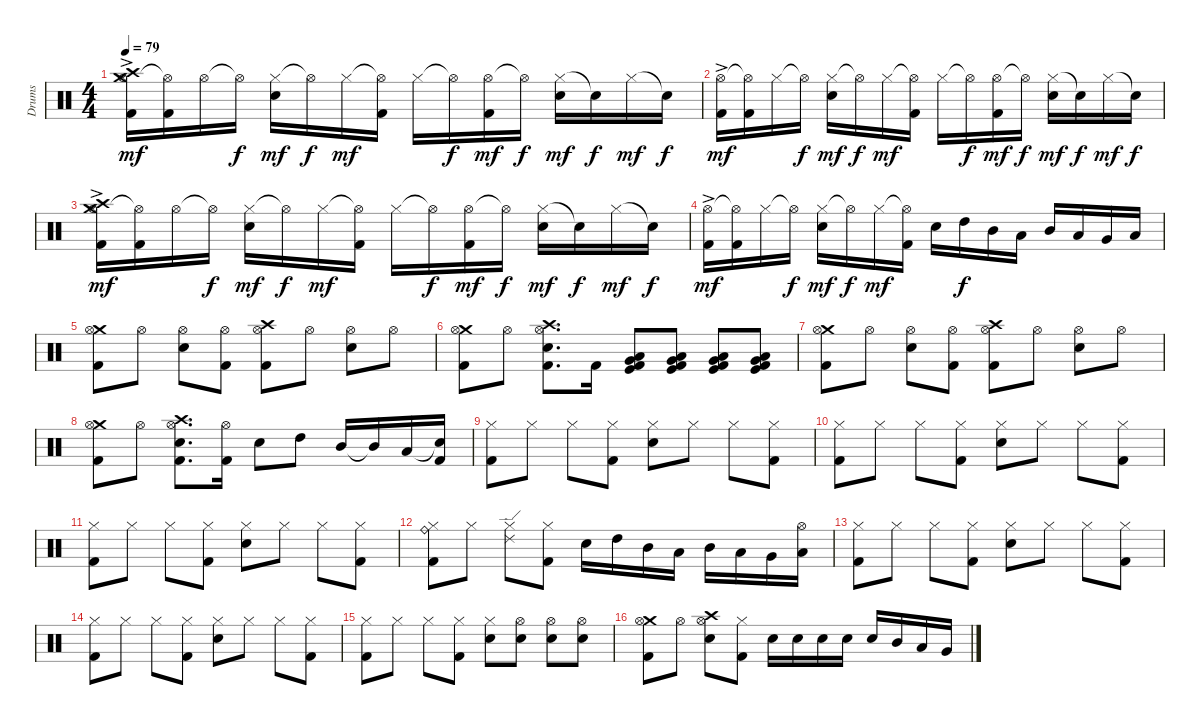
\track ("Drums" "Drums") {instrument percussion}
\staff {score}
\articulation defaults
\ts (4 4)
\tempo 79
\clef neutral
\ks c
("Crash medium (hit)" "Crash high (hit)" "Hi-Hat (open)"{ac} "Kick (hit) 2").16{dy mf} ("Hi-Hat (open)"{t} "Kick (hit) 2").16 "Hi-Hat (open)".16 "Hi-Hat (open)"{t}.16{dy f} ("Hi-Hat (closed)" "Electric Snare (hit)").16{dy mf} "Hi-Hat (open)"{t}.16{dy f} "Hi-Hat (closed)".16{dy mf} ("Hi-Hat (open)"{t} "Kick (hit) 2").16 "Hi-Hat (closed)".16 "Hi-Hat (open)"{t}.16{dy f} ("Hi-Hat (open)" "Kick (hit) 2").16{dy mf} "Hi-Hat (open)"{t}.16{dy f} ("Hi-Hat (closed)" "Electric Snare (hit)").16{dy mf} "Snare (hit)"{t}.16{dy f} "Hi-Hat (closed)".16{dy mf} "Snare (hit)"{t}.16{dy f} |
("Hi-Hat (open)"{ac} "Kick (hit) 2").16{dy mf} ("Hi-Hat (open)"{t} "Kick (hit) 2").16 "Hi-Hat (closed)".16 "Hi-Hat (open)"{t}.16{dy f} ("Hi-Hat (closed)" "Electric Snare (hit)").16{dy mf} "Hi-Hat (open)"{t}.16{dy f} "Hi-Hat (closed)".16{dy mf} ("Hi-Hat (open)"{t} "Kick (hit) 2").16 "Hi-Hat (closed)".16 "Hi-Hat (open)"{t}.16{dy f} ("Hi-Hat (open)" "Kick (hit) 2").16{dy mf} "Hi-Hat (open)"{t}.16{dy f} ("Hi-Hat (closed)" "Electric Snare (hit)").16{dy mf} "Snare (hit)"{t}.16{dy f} "Hi-Hat (closed)".16{dy mf} "Snare (hit)"{t}.16{dy f} |
("Crash medium (hit)" "Crash high (hit)" "Hi-Hat (open)"{ac} "Kick (hit) 2").16{dy mf} ("Hi-Hat (open)"{t} "Kick (hit) 2").16 "Hi-Hat (open)".16 "Hi-Hat (open)"{t}.16{dy f} ("Hi-Hat (closed)" "Electric Snare (hit)").16{dy mf} "Hi-Hat (open)"{t}.16{dy f} "Hi-Hat (closed)".16{dy mf} ("Hi-Hat (open)"{t} "Kick (hit) 2").16 "Hi-Hat (closed)".16 "Hi-Hat (open)"{t}.16{dy f} ("Hi-Hat (open)" "Kick (hit) 2").16{dy mf} "Hi-Hat (open)"{t}.16{dy f} ("Hi-Hat (closed)" "Electric Snare (hit)").16{dy mf} "Snare (hit)"{t}.16{dy f} "Hi-Hat (closed)".16{dy mf} "Snare (hit)"{t}.16{dy f} |
("Hi-Hat (open)"{ac} "Kick (hit) 2").16{dy mf} ("Hi-Hat (open)"{t} "Kick (hit) 2").16 "Hi-Hat (closed)".16 "Hi-Hat (open)"{t}.16{dy f} ("Hi-Hat (closed)" "Electric Snare (hit)").16{dy mf} "Hi-Hat (open)"{t}.16{dy f} "Hi-Hat (closed)".16{dy mf} ("Hi-Hat (open)"{t} "Kick (hit) 2").16 "Electric Snare (hit)".16 "High Tom (hit)".16{dy f} "Mid Tom (hit)".16 "Low Tom (hit)".16 "Mid Tom (hit)".16 "Low Tom (hit)".16 "Very Low Tom (hit)".16 "Low Floor Tom (hit)".16 |
("Crash medium (hit)" "Hi-Hat (open)" "Kick (hit) 2").8 "Hi-Hat (open)".8 ("Hi-Hat (open)" "Electric Snare (hit)").8 ("Hi-Hat (open)" "Kick (hit) 2").8 ("Crash high (hit)" "Hi-Hat (open)" "Kick (hit) 2").8 "Hi-Hat (open)".8 ("Hi-Hat (open)" "Electric Snare (hit)").8 "Hi-Hat (open)".8 |
("Crash medium (hit)" "Hi-Hat (open)" "Kick (hit) 2").8 "Hi-Hat (open)".8 ("Crash high (hit)" "Hi-Hat (open)" "Electric Snare (hit)" "Kick (hit) 2").8{d} "Kick (hit) 2".16 ("Very Low Tom (hit)" "Kick (hit)" "Kick (hit) 2" "Low Floor Tom (hit)").8 ("Very Low Tom (hit)" "Kick (hit)" "Kick (hit) 2" "Low Floor Tom (hit)").8 ("Very Low Tom (hit)" "Kick (hit)" "Kick (hit) 2" "Low Floor Tom (hit)").8 ("Very Low Tom (hit)" "Kick (hit)" "Kick (hit) 2" "Low Floor Tom (hit)").8 |
("Crash medium (hit)" "Hi-Hat (open)" "Kick (hit) 2").8 "Hi-Hat (open)".8 ("Hi-Hat (open)" "Electric Snare (hit)").8 ("Hi-Hat (open)" "Kick (hit) 2").8 ("Crash high (hit)" "Hi-Hat (open)" "Kick (hit) 2").8 "Hi-Hat (open)".8 ("Hi-Hat (open)" "Electric Snare (hit)").8 "Hi-Hat (open)".8 |
("Crash medium (hit)" "Hi-Hat (open)" "Kick (hit) 2").8 "Hi-Hat (open)".8 ("Crash high (hit)" "Hi-Hat (open)" "Electric Snare (hit)" "Kick (hit) 2").8{d} ("Hi-Hat (open)" "Kick (hit) 2").16 "Electric Snare (hit)".8 "High Tom (hit)".8 "Mid Tom (hit)".16 "Mid Tom (hit)"{t}.16 "Low Tom (hit)".16 ("Snare (hit)"{t} "Kick (hit) 2").16 |
("Hi-Hat (closed)" "Kick (hit) 2").8 "Hi-Hat (closed)".8 "Hi-Hat (closed)".8 ("Hi-Hat (closed)" "Kick (hit) 2").8 ("Hi-Hat (closed)" "Electric Snare (hit)").8 "Hi-Hat (closed)".8 "Hi-Hat (closed)".8 ("Hi-Hat (closed)" "Kick (hit) 2").8 |
("Hi-Hat (closed)" "Kick (hit) 2").8 "Hi-Hat (closed)".8 "Hi-Hat (closed)".8 ("Hi-Hat (closed)" "Kick (hit) 2").8 ("Hi-Hat (closed)" "Electric Snare (hit)").8 "Hi-Hat (closed)".8 "Hi-Hat (closed)".8 ("Hi-Hat (closed)" "Kick (hit) 2").8 |
("Hi-Hat (closed)" "Kick (hit) 2").8 "Hi-Hat (closed)".8 "Hi-Hat (closed)".8 ("Hi-Hat (closed)" "Kick (hit) 2").8 ("Hi-Hat (closed)" "Electric Snare (hit)").8 "Hi-Hat (closed)".8 "Hi-Hat (closed)".8 ("Hi-Hat (closed)" "Kick (hit) 2").8 |
("Ride (bell)" "Hi-Hat (closed)" "Kick (hit) 2").8 "Hi-Hat (closed)".8 ("Ride (edge) 2" "Hi-Hat (closed)").8 ("Hi-Hat (closed)" "Kick (hit) 2").8 "Electric Snare (hit)".16 "High Tom (hit)".16 "Mid Tom (hit)".16 "Low Tom (hit)".16 "Mid Tom (hit)".16 "Low Tom (hit)".16 "Very Low Tom (hit)".16 ("Hi-Hat (open)" "Low Floor Tom (hit)").16 |
("Hi-Hat (closed)" "Kick (hit) 2").8 "Hi-Hat (closed)".8 "Hi-Hat (closed)".8 ("Hi-Hat (closed)" "Kick (hit) 2").8 ("Hi-Hat (closed)" "Electric Snare (hit)").8 "Hi-Hat (closed)".8 "Hi-Hat (closed)".8 ("Hi-Hat (closed)" "Kick (hit) 2").8 |
("Hi-Hat (closed)" "Kick (hit) 2").8 "Hi-Hat (closed)".8 "Hi-Hat (closed)".8 ("Hi-Hat (closed)" "Kick (hit) 2").8 ("Hi-Hat (closed)" "Electric Snare (hit)").8 "Hi-Hat (closed)".8 "Hi-Hat (closed)".8 ("Hi-Hat (closed)" "Kick (hit) 2").8 |
("Hi-Hat (closed)" "Kick (hit) 2").8 "Hi-Hat (closed)".8 "Hi-Hat (closed)".8 ("Hi-Hat (closed)" "Kick (hit) 2").8 ("Hi-Hat (closed)" "Electric Snare (hit)").8 ("Hi-Hat (open)" "Electric Snare (hit)").8 ("Hi-Hat (open)" "Electric Snare (hit)").8 ("Hi-Hat (open)" "Electric Snare (hit)").8 |
("Crash medium (hit)" "Hi-Hat (open)" "Kick (hit) 2").8 "Hi-Hat (open)".8 ("Crash high (hit)" "Hi-Hat (open)" "Electric Snare (hit)").8 ("Hi-Hat (closed)" "Kick (hit) 2").8 "Electric Snare (hit)".16 "Electric Snare (hit)".16 "Electric Snare (hit)".16 "Electric Snare (hit)".16 "Electric Snare (hit)".16 "Mid Tom (hit)".16 "Low Tom (hit)".16 "Very Low Tom (hit)".16
